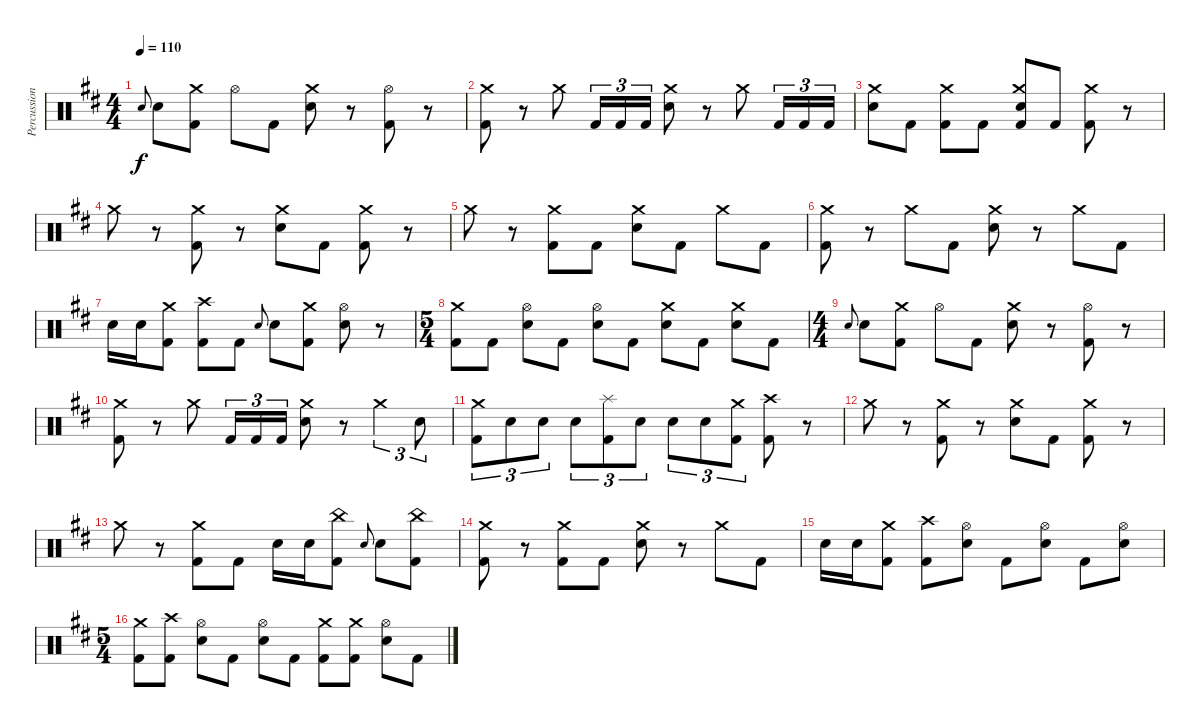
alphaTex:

\track ("Percussion" "Percussion") {instrument percussion}
\staff {score}
\articulation defaults
\ts (4 4)
\tempo 110
\clef neutral
\ks bminor "Snare (hit) 2".8{gr onbeat dy f} "Snare (hit) 2".8
("Crash medium (hit)" "Kick (hit) 2").8 "Hi-Hat (open)".8 "Kick (hit) 2".8 ("Crash medium (hit)" "Snare (hit) 2").8 r.8 ("Hi-Hat (open)" "Kick (hit) 2").8 r.8 |
("Crash medium (hit)" "Kick (hit) 2").8 r.8 "Crash medium (hit)".8 "Kick (hit) 2".16{tu (3 2)} "Kick (hit) 2".16{tu (3 2)} "Kick (hit) 2".16{tu (3 2)} ("Crash medium (hit)" "Snare (hit) 2").8 r.8 "Crash medium (hit)".8 "Kick (hit) 2".16{tu (3 2)} "Kick (hit) 2".16{tu (3 2)} "Kick (hit) 2".16{tu (3 2)} |
("Crash medium (hit)" "Snare (hit) 2").8 "Kick (hit) 2".8 ("Crash medium (hit)" "Kick (hit) 2").8 "Kick (hit) 2".8 ("Crash medium (hit)" "Snare (hit) 2" "Kick (hit) 2").8 "Kick (hit) 2".8 ("Crash medium (hit)" "Kick (hit) 2").8 r.8 |
"Crash medium (hit)".8 r.8 ("Crash medium (hit)" "Kick (hit) 2").8 r.8 ("Crash medium (hit)" "Snare (hit) 2").8 "Kick (hit) 2".8 ("Crash medium (hit)" "Kick (hit) 2").8 r.8 |
"Crash medium (hit)".8 r.8 ("Crash medium (hit)" "Kick (hit) 2").8 "Kick (hit) 2".8 ("Crash medium (hit)" "Snare (hit) 2").8 "Kick (hit) 2".8 "Crash medium (hit)".8 "Kick (hit) 2".8 |
("Crash medium (hit)" "Kick (hit) 2").8 r.8 "Crash medium (hit)".8 "Kick (hit) 2".8 ("Crash medium (hit)" "Snare (hit) 2").8 r.8 "Crash medium (hit)".8 "Kick (hit) 2".8 |
"Snare (hit) 2".16 "Snare (hit) 2".16 ("Crash medium (hit)" "Kick (hit) 2").8 ("Crash high (hit)" "Kick (hit) 2").8 "Kick (hit) 2".8 "Snare (hit) 2".8{gr onbeat} "Snare (hit) 2".8 ("Crash medium (hit)" "Kick (hit) 2").8 ("Hi-Hat (open)" "Snare (hit) 2").8 r.8 |
\ts (5 4)
("Crash medium (hit)" "Kick (hit) 2").8 "Kick (hit) 2".8 ("Hi-Hat (open)" "Snare (hit) 2").8 "Kick (hit) 2".8 ("Hi-Hat (open)" "Snare (hit) 2").8 "Kick (hit) 2".8 ("Crash medium (hit)" "Snare (hit) 2").8 "Kick (hit) 2".8 ("Crash medium (hit)" "Snare (hit) 2").8 "Kick (hit) 2".8 |
\ts (4 4)
"Snare (hit) 2".8{gr onbeat} "Snare (hit) 2".8 ("Crash medium (hit)" "Kick (hit) 2").8 "Hi-Hat (open)".8 "Kick (hit) 2".8 ("Crash medium (hit)" "Snare (hit) 2").8 r.8 ("Hi-Hat (open)" "Kick (hit) 2").8 r.8 |
("Crash medium (hit)" "Kick (hit) 2").8 r.8 "Crash medium (hit)".8 "Kick (hit) 2".16{tu (3 2)} "Kick (hit) 2".16{tu (3 2)} "Kick (hit) 2".16{tu (3 2)} ("Crash medium (hit)" "Snare (hit) 2").8 r.8 "Crash medium (hit)".4{tu (3 2)} "Snare (hit) 2".8{tu (3 2)} |
("Crash medium (hit)" "Kick (hit) 2").8{tu (3 2)} "Snare (hit) 2".8{tu (3 2)} "Snare (hit) 2".8{tu (3 2)} "Snare (hit) 2".8{tu (3 2)} ("Splash (hit)" "Kick (hit) 2").8{tu (3 2)} "Snare (hit) 2".8{tu (3 2)} "Snare (hit) 2".8{tu (3 2)} "Snare (hit) 2".8{tu (3 2)} ("Crash medium (hit)" "Kick (hit) 2").8{tu (3 2)} ("Crash high (hit)" "Kick (hit) 2").8 r.8 |
"Crash medium (hit)".8 r.8 ("Crash medium (hit)" "Kick (hit) 2").8 r.8 ("Crash medium (hit)" "Snare (hit) 2").8 "Kick (hit) 2".8 ("Crash medium (hit)" "Kick (hit) 2").8 r.8 |
"Crash medium (hit)".8 r.8 ("Crash medium (hit)" "Kick (hit) 2").8 "Kick (hit) 2".8 "Snare (hit) 2".16 "Snare (hit) 2".16 ("China (hit)" "Kick (hit) 2").8 "Snare (hit) 2".8{gr onbeat} "Snare (hit) 2".8 ("China (hit)" "Kick (hit) 2").8 |
("Crash medium (hit)" "Kick (hit) 2").8 r.8 ("Crash medium (hit)" "Kick (hit) 2").8 "Kick (hit) 2".8 ("Crash medium (hit)" "Snare (hit) 2").8 r.8 "Crash medium (hit)".8 "Kick (hit) 2".8 |
"Snare (hit) 2".16 "Snare (hit) 2".16 ("Crash medium (hit)" "Kick (hit) 2").8 ("Crash high (hit)" "Kick (hit) 2").8 ("Hi-Hat (open)" "Snare (hit) 2").8 "Kick (hit) 2".8 ("Hi-Hat (open)" "Snare (hit) 2").8 "Kick (hit) 2".8 ("Hi-Hat (open)" "Snare (hit) 2").8 |
\ts (5 4)
("Crash medium (hit)" "Kick (hit) 2").8 ("Crash high (hit)" "Kick (hit) 2").8 ("Hi-Hat (open)" "Snare (hit) 2").8 "Kick (hit) 2".8 ("Hi-Hat (open)" "Snare (hit) 2").8 "Kick (hit) 2".8 ("Crash medium (hit)" "Kick (hit) 2").8 ("Crash medium (hit)" "Kick (hit) 2").8 ("Hi-Hat (open)" "Snare (hit) 2").8 "Kick (hit) 2".8
